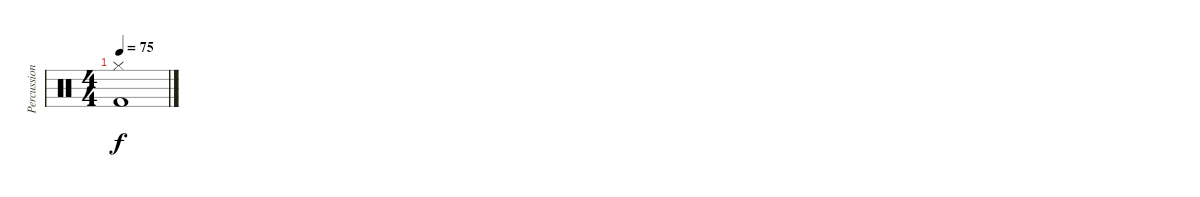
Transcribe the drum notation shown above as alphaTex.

\track ("Percussion" "Percussion") {instrument percussion}
\staff {score}
\articulation defaults
\ts (4 4)
\tempo 75
\clef neutral
\ks c
("Hi-Hat (closed)" "Kick (hit) 2").1{dy f}
